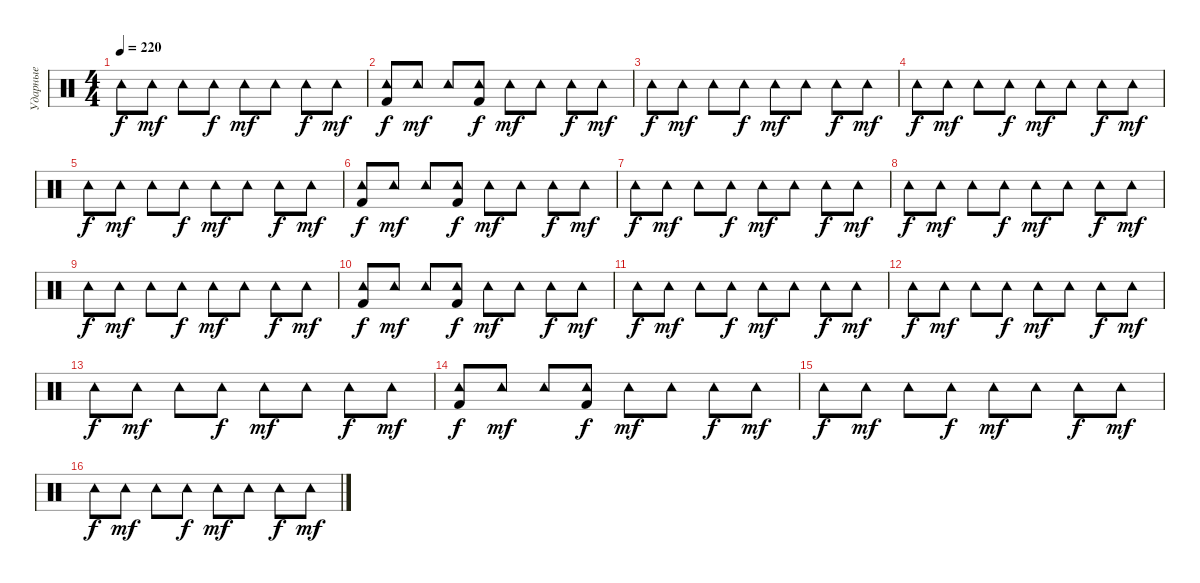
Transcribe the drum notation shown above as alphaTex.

\track ("Ударные" "Ударные") {instrument percussion}
\staff {score}
\articulation defaults
\ts (4 4)
\tempo 220
\clef neutral
\ks c "Tambourine (hit)".8{dy f} "Tambourine (hit)".8{dy mf} "Tambourine (hit)".8 "Tambourine (hit)".8{dy f} "Tambourine (hit)".8{dy mf} "Tambourine (hit)".8 "Tambourine (hit)".8{dy f} "Tambourine (hit)".8{dy mf}
|
("Kick (hit) 2" "Tambourine (hit)").8{dy f} "Tambourine (hit)".8{dy mf} "Tambourine (hit)".8 ("Kick (hit) 2" "Tambourine (hit)").8{dy f} "Tambourine (hit)".8{dy mf} "Tambourine (hit)".8 "Tambourine (hit)".8{dy f} "Tambourine (hit)".8{dy mf} |
"Tambourine (hit)".8{dy f} "Tambourine (hit)".8{dy mf} "Tambourine (hit)".8 "Tambourine (hit)".8{dy f} "Tambourine (hit)".8{dy mf} "Tambourine (hit)".8 "Tambourine (hit)".8{dy f} "Tambourine (hit)".8{dy mf} |
"Tambourine (hit)".8{dy f} "Tambourine (hit)".8{dy mf} "Tambourine (hit)".8 "Tambourine (hit)".8{dy f} "Tambourine (hit)".8{dy mf} "Tambourine (hit)".8 "Tambourine (hit)".8{dy f} "Tambourine (hit)".8{dy mf} |
"Tambourine (hit)".8{dy f} "Tambourine (hit)".8{dy mf} "Tambourine (hit)".8 "Tambourine (hit)".8{dy f} "Tambourine (hit)".8{dy mf} "Tambourine (hit)".8 "Tambourine (hit)".8{dy f} "Tambourine (hit)".8{dy mf} |
("Tambourine (hit)" "Kick (hit) 2").8{dy f} "Tambourine (hit)".8{dy mf} "Tambourine (hit)".8 ("Tambourine (hit)" "Kick (hit) 2").8{dy f} "Tambourine (hit)".8{dy mf} "Tambourine (hit)".8 "Tambourine (hit)".8{dy f} "Tambourine (hit)".8{dy mf} |
"Tambourine (hit)".8{dy f} "Tambourine (hit)".8{dy mf} "Tambourine (hit)".8 "Tambourine (hit)".8{dy f} "Tambourine (hit)".8{dy mf} "Tambourine (hit)".8 "Tambourine (hit)".8{dy f} "Tambourine (hit)".8{dy mf} |
"Tambourine (hit)".8{dy f} "Tambourine (hit)".8{dy mf} "Tambourine (hit)".8 "Tambourine (hit)".8{dy f} "Tambourine (hit)".8{dy mf} "Tambourine (hit)".8 "Tambourine (hit)".8{dy f} "Tambourine (hit)".8{dy mf} |
"Tambourine (hit)".8{dy f} "Tambourine (hit)".8{dy mf} "Tambourine (hit)".8 "Tambourine (hit)".8{dy f} "Tambourine (hit)".8{dy mf} "Tambourine (hit)".8 "Tambourine (hit)".8{dy f} "Tambourine (hit)".8{dy mf} |
("Kick (hit) 2" "Tambourine (hit)").8{dy f} "Tambourine (hit)".8{dy mf} "Tambourine (hit)".8 ("Kick (hit) 2" "Tambourine (hit)").8{dy f} "Tambourine (hit)".8{dy mf} "Tambourine (hit)".8 "Tambourine (hit)".8{dy f} "Tambourine (hit)".8{dy mf} |
"Tambourine (hit)".8{dy f} "Tambourine (hit)".8{dy mf} "Tambourine (hit)".8 "Tambourine (hit)".8{dy f} "Tambourine (hit)".8{dy mf} "Tambourine (hit)".8 "Tambourine (hit)".8{dy f} "Tambourine (hit)".8{dy mf} |
"Tambourine (hit)".8{dy f} "Tambourine (hit)".8{dy mf} "Tambourine (hit)".8 "Tambourine (hit)".8{dy f} "Tambourine (hit)".8{dy mf} "Tambourine (hit)".8 "Tambourine (hit)".8{dy f} "Tambourine (hit)".8{dy mf} |
"Tambourine (hit)".8{dy f} "Tambourine (hit)".8{dy mf} "Tambourine (hit)".8 "Tambourine (hit)".8{dy f} "Tambourine (hit)".8{dy mf} "Tambourine (hit)".8 "Tambourine (hit)".8{dy f} "Tambourine (hit)".8{dy mf} |
("Tambourine (hit)" "Kick (hit) 2").8{dy f} "Tambourine (hit)".8{dy mf} "Tambourine (hit)".8 ("Tambourine (hit)" "Kick (hit) 2").8{dy f} "Tambourine (hit)".8{dy mf} "Tambourine (hit)".8 "Tambourine (hit)".8{dy f} "Tambourine (hit)".8{dy mf} |
"Tambourine (hit)".8{dy f} "Tambourine (hit)".8{dy mf} "Tambourine (hit)".8 "Tambourine (hit)".8{dy f} "Tambourine (hit)".8{dy mf} "Tambourine (hit)".8 "Tambourine (hit)".8{dy f} "Tambourine (hit)".8{dy mf} |
"Tambourine (hit)".8{dy f} "Tambourine (hit)".8{dy mf} "Tambourine (hit)".8 "Tambourine (hit)".8{dy f} "Tambourine (hit)".8{dy mf} "Tambourine (hit)".8 "Tambourine (hit)".8{dy f} "Tambourine (hit)".8{dy mf}
